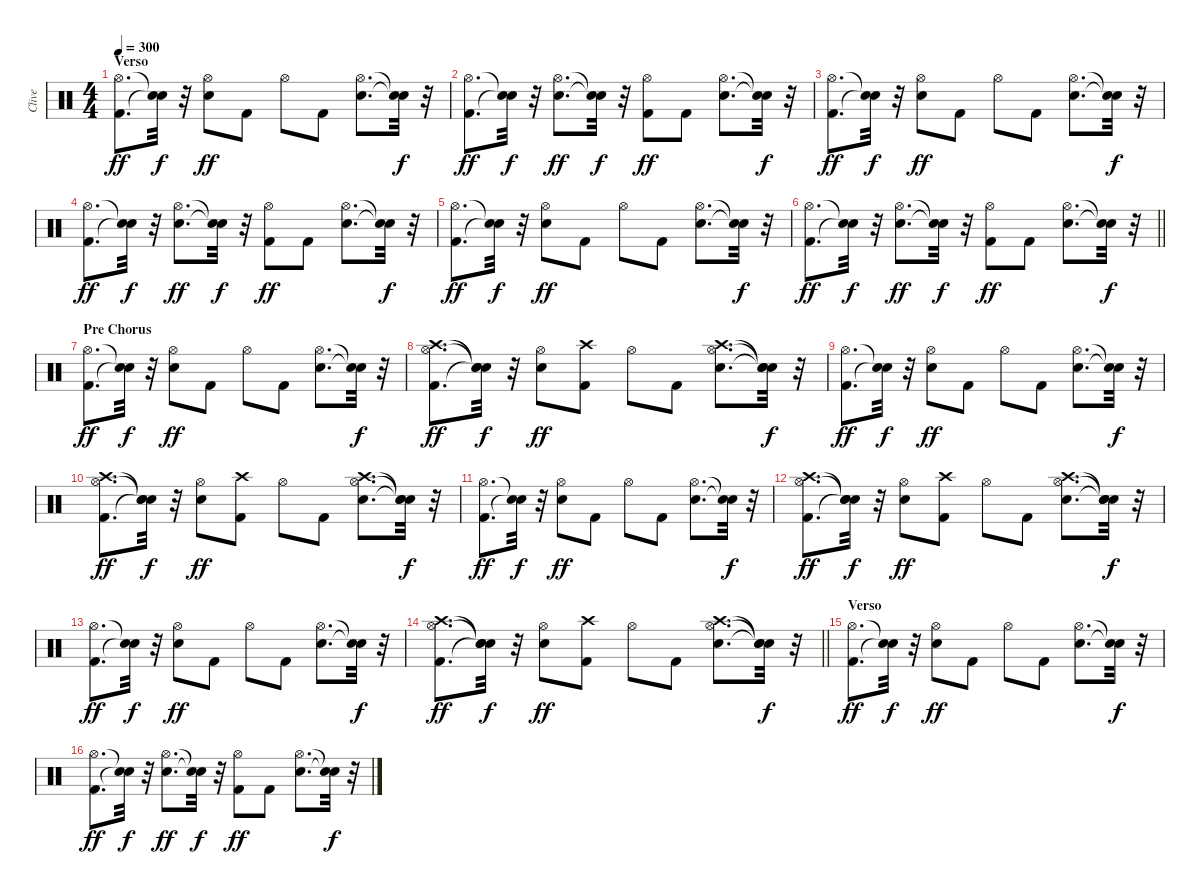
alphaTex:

\track ("Clive" "Clive") {instrument percussion}
\staff {score}
\articulation defaults
\ts (4 4)
\section ("" "Verso ")
\tempo 300
\clef neutral
\ks c
("Kick (hit) 2" "Hi-Hat (open)").8{d dy ff} ("Snare (hit)"{t} "Snare (hit)"{t}).32{dy f} r.32 ("Snare (hit) 2" "Hi-Hat (open)").8{dy ff} "Kick (hit) 2".8 "Hi-Hat (open)".8 "Kick (hit) 2".8 ("Snare (hit) 2" "Hi-Hat (open)").8{d} ("Snare (hit)"{t} "Snare (hit)"{t}).32{dy f} r.32 |
("Kick (hit) 2" "Hi-Hat (open)").8{d dy ff} ("Snare (hit)"{t} "Snare (hit)"{t}).32{dy f} r.32 ("Snare (hit) 2" "Hi-Hat (open)").8{d dy ff} ("Snare (hit)"{t} "Snare (hit)"{t}).32{dy f} r.32 ("Kick (hit) 2" "Hi-Hat (open)").8{dy ff} "Kick (hit) 2".8 ("Snare (hit) 2" "Hi-Hat (open)").8{d} ("Snare (hit)"{t} "Snare (hit)"{t}).32{dy f} r.32 |
("Kick (hit) 2" "Hi-Hat (open)").8{d dy ff} ("Snare (hit)"{t} "Snare (hit)"{t}).32{dy f} r.32 ("Snare (hit) 2" "Hi-Hat (open)").8{dy ff} "Kick (hit) 2".8 "Hi-Hat (open)".8 "Kick (hit) 2".8 ("Snare (hit) 2" "Hi-Hat (open)").8{d} ("Snare (hit)"{t} "Snare (hit)"{t}).32{dy f} r.32 |
("Kick (hit) 2" "Hi-Hat (open)").8{d dy ff} ("Snare (hit)"{t} "Snare (hit)"{t}).32{dy f} r.32 ("Snare (hit) 2" "Hi-Hat (open)").8{d dy ff} ("Snare (hit)"{t} "Snare (hit)"{t}).32{dy f} r.32 ("Kick (hit) 2" "Hi-Hat (open)").8{dy ff} "Kick (hit) 2".8 ("Snare (hit) 2" "Hi-Hat (open)").8{d} ("Snare (hit)"{t} "Snare (hit)"{t}).32{dy f} r.32 |
("Kick (hit) 2" "Hi-Hat (open)").8{d dy ff} ("Snare (hit)"{t} "Snare (hit)"{t}).32{dy f} r.32 ("Snare (hit) 2" "Hi-Hat (open)").8{dy ff} "Kick (hit) 2".8 "Hi-Hat (open)".8 "Kick (hit) 2".8 ("Snare (hit) 2" "Hi-Hat (open)").8{d} ("Snare (hit)"{t} "Snare (hit)"{t}).32{dy f} r.32 |
\barLineRight lightlight
("Kick (hit) 2" "Hi-Hat (open)").8{d dy ff} ("Snare (hit)"{t} "Snare (hit)"{t}).32{dy f} r.32 ("Snare (hit) 2" "Hi-Hat (open)").8{d dy ff} ("Snare (hit)"{t} "Snare (hit)"{t}).32{dy f} r.32 ("Kick (hit) 2" "Hi-Hat (open)").8{dy ff} "Kick (hit) 2".8 ("Snare (hit) 2" "Hi-Hat (open)").8{d} ("Snare (hit)"{t} "Snare (hit)"{t}).32{dy f} r.32 |
\section ("" "Pre Chorus")
("Kick (hit) 2" "Hi-Hat (open)").8{d dy ff} ("Snare (hit)"{t} "Snare (hit)"{t}).32{dy f} r.32 ("Snare (hit) 2" "Hi-Hat (open)").8{dy ff} "Kick (hit) 2".8 "Hi-Hat (open)".8 "Kick (hit) 2".8 ("Snare (hit) 2" "Hi-Hat (open)").8{d} ("Snare (hit)"{t} "Snare (hit)"{t}).32{dy f} r.32 |
("Kick (hit) 2" "Hi-Hat (open)" "Crash high (hit)").8{d dy ff} ("Snare (hit)"{t} "Snare (hit)"{t} "Snare (hit)"{t}).32{dy f} r.32 ("Snare (hit) 2" "Hi-Hat (open)").8{dy ff} ("Kick (hit) 2" "Crash high (hit)").8 "Hi-Hat (open)".8 "Kick (hit) 2".8 ("Snare (hit) 2" "Hi-Hat (open)" "Crash high (hit)").8{d} ("Snare (hit)"{t} "Snare (hit)"{t} "Snare (hit)"{t}).32{dy f} r.32 |
("Kick (hit) 2" "Hi-Hat (open)").8{d dy ff} ("Snare (hit)"{t} "Snare (hit)"{t}).32{dy f} r.32 ("Snare (hit) 2" "Hi-Hat (open)").8{dy ff} "Kick (hit) 2".8 "Hi-Hat (open)".8 "Kick (hit) 2".8 ("Snare (hit) 2" "Hi-Hat (open)").8{d} ("Snare (hit)"{t} "Snare (hit)"{t}).32{dy f} r.32 |
("Kick (hit) 2" "Hi-Hat (open)" "Crash high (hit)").8{d dy ff} ("Snare (hit)"{t} "Snare (hit)"{t} "Snare (hit)"{t}).32{dy f} r.32 ("Snare (hit) 2" "Hi-Hat (open)").8{dy ff} ("Kick (hit) 2" "Crash high (hit)").8 "Hi-Hat (open)".8 "Kick (hit) 2".8 ("Snare (hit) 2" "Hi-Hat (open)" "Crash high (hit)").8{d} ("Snare (hit)"{t} "Snare (hit)"{t} "Snare (hit)"{t}).32{dy f} r.32 |
("Kick (hit) 2" "Hi-Hat (open)").8{d dy ff} ("Snare (hit)"{t} "Snare (hit)"{t}).32{dy f} r.32 ("Snare (hit) 2" "Hi-Hat (open)").8{dy ff} "Kick (hit) 2".8 "Hi-Hat (open)".8 "Kick (hit) 2".8 ("Snare (hit) 2" "Hi-Hat (open)").8{d} ("Snare (hit)"{t} "Snare (hit)"{t}).32{dy f} r.32 |
("Kick (hit) 2" "Hi-Hat (open)" "Crash high (hit)").8{d dy ff} ("Snare (hit)"{t} "Snare (hit)"{t} "Snare (hit)"{t}).32{dy f} r.32 ("Snare (hit) 2" "Hi-Hat (open)").8{dy ff} ("Kick (hit) 2" "Crash high (hit)").8 "Hi-Hat (open)".8 "Kick (hit) 2".8 ("Snare (hit) 2" "Hi-Hat (open)" "Crash high (hit)").8{d} ("Snare (hit)"{t} "Snare (hit)"{t} "Snare (hit)"{t}).32{dy f} r.32 |
("Kick (hit) 2" "Hi-Hat (open)").8{d dy ff} ("Snare (hit)"{t} "Snare (hit)"{t}).32{dy f} r.32 ("Snare (hit) 2" "Hi-Hat (open)").8{dy ff} "Kick (hit) 2".8 "Hi-Hat (open)".8 "Kick (hit) 2".8 ("Snare (hit) 2" "Hi-Hat (open)").8{d} ("Snare (hit)"{t} "Snare (hit)"{t}).32{dy f} r.32 |
\barLineRight lightlight
("Kick (hit) 2" "Hi-Hat (open)" "Crash high (hit)").8{d dy ff} ("Snare (hit)"{t} "Snare (hit)"{t} "Snare (hit)"{t}).32{dy f} r.32 ("Snare (hit) 2" "Hi-Hat (open)").8{dy ff} ("Kick (hit) 2" "Crash high (hit)").8 "Hi-Hat (open)".8 "Kick (hit) 2".8 ("Snare (hit) 2" "Hi-Hat (open)" "Crash high (hit)").8{d} ("Snare (hit)"{t} "Snare (hit)"{t} "Snare (hit)"{t}).32{dy f} r.32 |
\section ("" "Verso ")
("Kick (hit) 2" "Hi-Hat (open)").8{d dy ff} ("Snare (hit)"{t} "Snare (hit)"{t}).32{dy f} r.32 ("Snare (hit) 2" "Hi-Hat (open)").8{dy ff} "Kick (hit) 2".8 "Hi-Hat (open)".8 "Kick (hit) 2".8 ("Snare (hit) 2" "Hi-Hat (open)").8{d} ("Snare (hit)"{t} "Snare (hit)"{t}).32{dy f} r.32 |
("Kick (hit) 2" "Hi-Hat (open)").8{d dy ff} ("Snare (hit)"{t} "Snare (hit)"{t}).32{dy f} r.32 ("Snare (hit) 2" "Hi-Hat (open)").8{d dy ff} ("Snare (hit)"{t} "Snare (hit)"{t}).32{dy f} r.32 ("Kick (hit) 2" "Hi-Hat (open)").8{dy ff} "Kick (hit) 2".8 ("Snare (hit) 2" "Hi-Hat (open)").8{d} ("Snare (hit)"{t} "Snare (hit)"{t}).32{dy f} r.32
